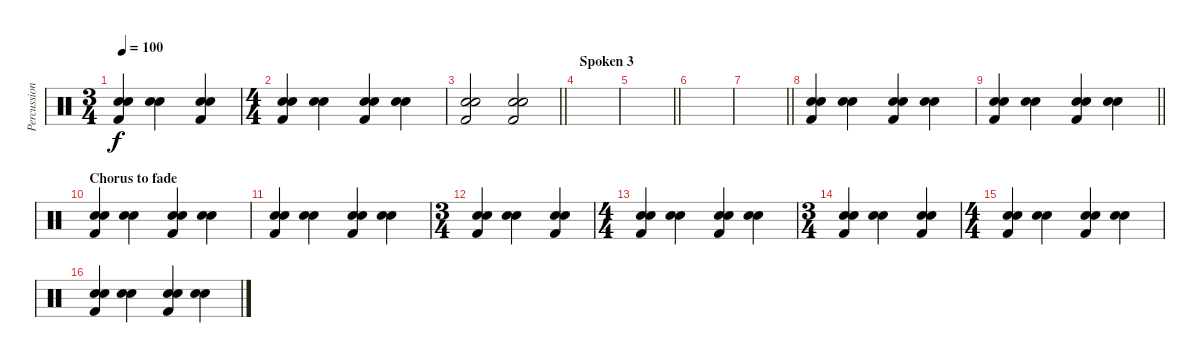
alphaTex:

\track ("Percussion" "Percussion") {instrument percussion}
\staff {score}
\articulation defaults
\ts (3 4)
\tempo 100
\clef neutral
\ks c
("Snare (hit) 2" "Hand Clap (hit)" "Kick (hit) 2").4{dy f} ("Snare (hit) 2" "Hand Clap (hit)").4 ("Snare (hit) 2" "Hand Clap (hit)" "Kick (hit) 2").4 |
\ts (4 4)
("Snare (hit) 2" "Hand Clap (hit)" "Kick (hit) 2").4 ("Snare (hit) 2" "Hand Clap (hit)").4 ("Snare (hit) 2" "Hand Clap (hit)" "Kick (hit) 2").4 ("Snare (hit) 2" "Hand Clap (hit)").4 |
\barLineRight lightlight
("Snare (hit) 2" "Hand Clap (hit)" "Kick (hit) 2").2 ("Snare (hit) 2" "Hand Clap (hit)" "Kick (hit) 2").2 |
\section ("" "Spoken 3")
|
\barLineRight lightlight
|
|
\barLineRight lightlight
|
("Snare (hit) 2" "Hand Clap (hit)" "Kick (hit) 2").4 ("Snare (hit) 2" "Hand Clap (hit)").4 ("Snare (hit) 2" "Hand Clap (hit)" "Kick (hit) 2").4 ("Snare (hit) 2" "Hand Clap (hit)").4 |
\barLineRight lightlight
("Snare (hit) 2" "Hand Clap (hit)" "Kick (hit) 2").4 ("Snare (hit) 2" "Hand Clap (hit)").4 ("Snare (hit) 2" "Hand Clap (hit)" "Kick (hit) 2").4 ("Snare (hit) 2" "Hand Clap (hit)").4 |
\section ("" "Chorus to fade")
("Snare (hit) 2" "Hand Clap (hit)" "Kick (hit) 2").4 ("Snare (hit) 2" "Hand Clap (hit)").4 ("Snare (hit) 2" "Hand Clap (hit)" "Kick (hit) 2").4 ("Snare (hit) 2" "Hand Clap (hit)").4 |
("Snare (hit) 2" "Hand Clap (hit)" "Kick (hit) 2").4 ("Snare (hit) 2" "Hand Clap (hit)").4 ("Snare (hit) 2" "Hand Clap (hit)" "Kick (hit) 2").4 ("Snare (hit) 2" "Hand Clap (hit)").4 |
\ts (3 4)
("Snare (hit) 2" "Hand Clap (hit)" "Kick (hit) 2").4 ("Snare (hit) 2" "Hand Clap (hit)").4 ("Snare (hit) 2" "Hand Clap (hit)" "Kick (hit) 2").4 |
\ts (4 4)
("Snare (hit) 2" "Hand Clap (hit)" "Kick (hit) 2").4 ("Snare (hit) 2" "Hand Clap (hit)").4 ("Snare (hit) 2" "Hand Clap (hit)" "Kick (hit) 2").4 ("Snare (hit) 2" "Hand Clap (hit)").4 |
\ts (3 4)
("Snare (hit) 2" "Hand Clap (hit)" "Kick (hit) 2").4 ("Snare (hit) 2" "Hand Clap (hit)").4 ("Snare (hit) 2" "Hand Clap (hit)" "Kick (hit) 2").4 |
\ts (4 4)
("Snare (hit) 2" "Hand Clap (hit)" "Kick (hit) 2").4 ("Snare (hit) 2" "Hand Clap (hit)").4 ("Snare (hit) 2" "Hand Clap (hit)" "Kick (hit) 2").4 ("Snare (hit) 2" "Hand Clap (hit)").4 |
("Snare (hit) 2" "Hand Clap (hit)" "Kick (hit) 2").4 ("Snare (hit) 2" "Hand Clap (hit)").4 ("Snare (hit) 2" "Hand Clap (hit)" "Kick (hit) 2").4 ("Snare (hit) 2" "Hand Clap (hit)").4
